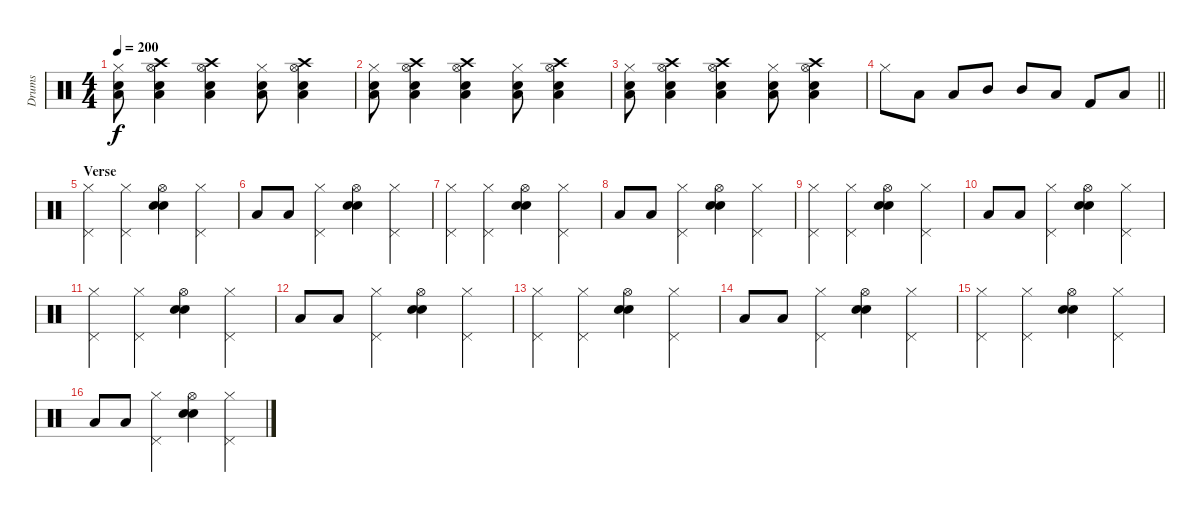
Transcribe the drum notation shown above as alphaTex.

\track ("Drums" "Drums") {instrument percussion}
\staff {score}
\articulation defaults
\ts (4 4)
\tempo 200
\clef neutral
\ks c
("Snare (hit) 2" "Hi-Hat (closed)" "Low Tom (hit)").8{dy f} ("Electric Snare (hit)" "Low Tom (hit)" "Hi-Hat (open)" "Crash high (hit)").4 ("Electric Snare (hit)" "Low Tom (hit)" "Hi-Hat (open)" "Crash high (hit)").4 ("Snare (hit) 2" "Hi-Hat (closed)" "Low Tom (hit)").8 ("Electric Snare (hit)" "Low Tom (hit)" "Hi-Hat (open)" "Crash high (hit)").4 |
("Snare (hit) 2" "Hi-Hat (closed)" "Low Tom (hit)").8 ("Electric Snare (hit)" "Low Tom (hit)" "Hi-Hat (open)" "Crash high (hit)").4 ("Electric Snare (hit)" "Low Tom (hit)" "Hi-Hat (open)" "Crash high (hit)").4 ("Snare (hit) 2" "Hi-Hat (closed)" "Low Tom (hit)").8 ("Electric Snare (hit)" "Low Tom (hit)" "Hi-Hat (open)" "Crash high (hit)").4 |
("Snare (hit) 2" "Hi-Hat (closed)" "Low Tom (hit)").8 ("Electric Snare (hit)" "Low Tom (hit)" "Hi-Hat (open)" "Crash high (hit)").4 ("Electric Snare (hit)" "Low Tom (hit)" "Hi-Hat (open)" "Crash high (hit)").4 ("Snare (hit) 2" "Hi-Hat (closed)" "Low Tom (hit)").8 ("Electric Snare (hit)" "Low Tom (hit)" "Hi-Hat (open)" "Crash high (hit)").4 |
\barLineRight lightlight "Hi-Hat (closed)".8 "Low Tom (hit)".8 "Low Tom (hit)".8 "Mid Tom (hit)".8 "Mid Tom (hit)".8 "Low Tom (hit)".8 "Kick (hit) 2".8 "Low Tom (hit)".8
|
\section ("" "Verse")
("Hi-Hat (closed)" "Pedal Hi-Hat (hit)").4 ("Hi-Hat (closed)" "Pedal Hi-Hat (hit)").4 ("Snare (hit) 2" "Electric Snare (hit)" "Hi-Hat (open)").4 ("Hi-Hat (closed)" "Pedal Hi-Hat (hit)").4 |
"Low Tom (hit)".8 "Low Tom (hit)".8 ("Hi-Hat (closed)" "Pedal Hi-Hat (hit)").4 ("Snare (hit) 2" "Electric Snare (hit)" "Hi-Hat (open)").4 ("Hi-Hat (closed)" "Pedal Hi-Hat (hit)").4 |
("Hi-Hat (closed)" "Pedal Hi-Hat (hit)").4 ("Hi-Hat (closed)" "Pedal Hi-Hat (hit)").4 ("Snare (hit) 2" "Electric Snare (hit)" "Hi-Hat (open)").4 ("Hi-Hat (closed)" "Pedal Hi-Hat (hit)").4 |
"Low Tom (hit)".8 "Low Tom (hit)".8 ("Hi-Hat (closed)" "Pedal Hi-Hat (hit)").4 ("Snare (hit) 2" "Electric Snare (hit)" "Hi-Hat (open)").4 ("Hi-Hat (closed)" "Pedal Hi-Hat (hit)").4 |
("Hi-Hat (closed)" "Pedal Hi-Hat (hit)").4 ("Hi-Hat (closed)" "Pedal Hi-Hat (hit)").4 ("Snare (hit) 2" "Electric Snare (hit)" "Hi-Hat (open)").4 ("Hi-Hat (closed)" "Pedal Hi-Hat (hit)").4 |
"Low Tom (hit)".8 "Low Tom (hit)".8 ("Hi-Hat (closed)" "Pedal Hi-Hat (hit)").4 ("Snare (hit) 2" "Electric Snare (hit)" "Hi-Hat (open)").4 ("Hi-Hat (closed)" "Pedal Hi-Hat (hit)").4 |
("Hi-Hat (closed)" "Pedal Hi-Hat (hit)").4 ("Hi-Hat (closed)" "Pedal Hi-Hat (hit)").4 ("Snare (hit) 2" "Electric Snare (hit)" "Hi-Hat (open)").4 ("Hi-Hat (closed)" "Pedal Hi-Hat (hit)").4 |
"Low Tom (hit)".8 "Low Tom (hit)".8 ("Hi-Hat (closed)" "Pedal Hi-Hat (hit)").4 ("Snare (hit) 2" "Electric Snare (hit)" "Hi-Hat (open)").4 ("Hi-Hat (closed)" "Pedal Hi-Hat (hit)").4 |
("Hi-Hat (closed)" "Pedal Hi-Hat (hit)").4 ("Hi-Hat (closed)" "Pedal Hi-Hat (hit)").4 ("Snare (hit) 2" "Electric Snare (hit)" "Hi-Hat (open)").4 ("Hi-Hat (closed)" "Pedal Hi-Hat (hit)").4 |
"Low Tom (hit)".8 "Low Tom (hit)".8 ("Hi-Hat (closed)" "Pedal Hi-Hat (hit)").4 ("Snare (hit) 2" "Electric Snare (hit)" "Hi-Hat (open)").4 ("Hi-Hat (closed)" "Pedal Hi-Hat (hit)").4 |
("Hi-Hat (closed)" "Pedal Hi-Hat (hit)").4 ("Hi-Hat (closed)" "Pedal Hi-Hat (hit)").4 ("Snare (hit) 2" "Electric Snare (hit)" "Hi-Hat (open)").4 ("Hi-Hat (closed)" "Pedal Hi-Hat (hit)").4 |
"Low Tom (hit)".8 "Low Tom (hit)".8 ("Hi-Hat (closed)" "Pedal Hi-Hat (hit)").4 ("Snare (hit) 2" "Electric Snare (hit)" "Hi-Hat (open)").4 ("Hi-Hat (closed)" "Pedal Hi-Hat (hit)").4
